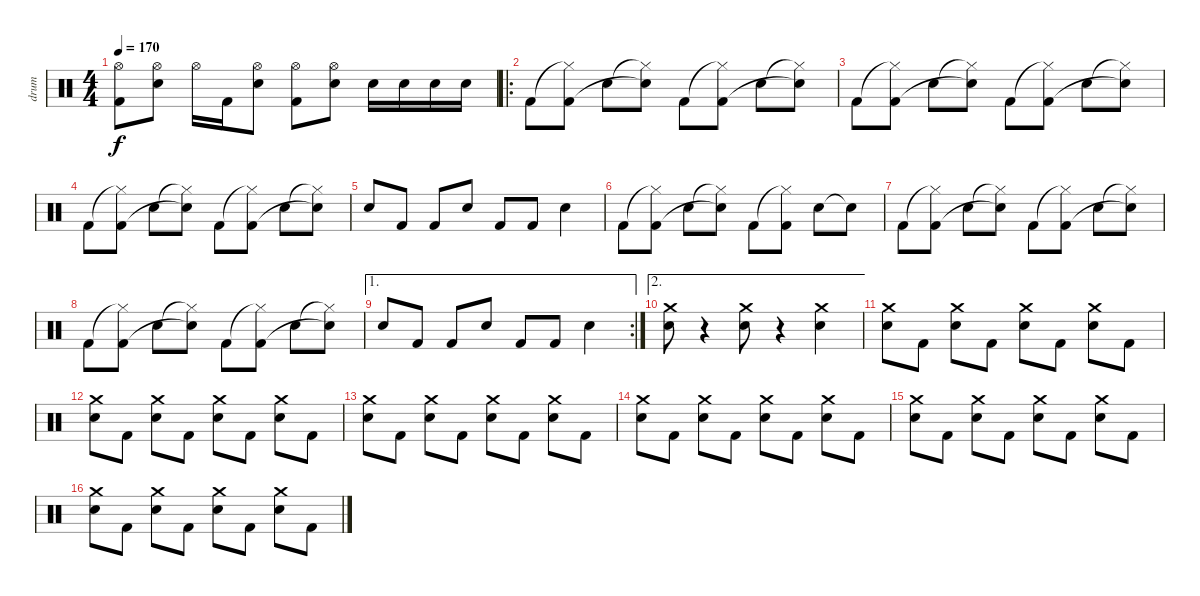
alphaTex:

\track ("drum" "drum") {instrument percussion}
\staff {score}
\articulation defaults
\ts (4 4)
\tempo 170
\clef neutral
\ks c
("Hi-Hat (open)" "Kick (hit) 2").8{dy f} ("Hi-Hat (open)" "Snare (hit) 2").8 "Hi-Hat (open)".16 "Kick (hit) 2".16 ("Hi-Hat (open)" "Snare (hit) 2").8 ("Hi-Hat (open)" "Kick (hit) 2").8 ("Hi-Hat (open)" "Snare (hit) 2").8 "Snare (hit) 2".16 "Snare (hit) 2".16 "Snare (hit) 2".16 "Snare (hit) 2".16 |
\ro "Kick (hit) 2".8
("Hi-Hat (closed)"{t} "Kick (hit) 2").8 "Snare (hit) 2".8 ("Hi-Hat (closed)"{t} "Snare (hit)"{t}).8 "Kick (hit) 2".8 ("Hi-Hat (closed)"{t} "Kick (hit) 2").8 "Snare (hit) 2".8 ("Hi-Hat (closed)"{t} "Snare (hit) 2"{t}).8 |
"Kick (hit) 2".8 ("Hi-Hat (closed)"{t} "Kick (hit) 2").8 "Snare (hit) 2".8 ("Hi-Hat (closed)"{t} "Snare (hit)"{t}).8 "Kick (hit) 2".8 ("Hi-Hat (closed)"{t} "Kick (hit) 2").8 "Snare (hit) 2".8 ("Hi-Hat (closed)"{t} "Snare (hit) 2"{t}).8 |
"Kick (hit) 2".8 ("Hi-Hat (closed)"{t} "Kick (hit) 2").8 "Snare (hit) 2".8 ("Hi-Hat (closed)"{t} "Snare (hit)"{t}).8 "Kick (hit) 2".8 ("Hi-Hat (closed)"{t} "Kick (hit) 2").8 "Snare (hit) 2".8 ("Hi-Hat (closed)"{t} "Snare (hit)"{t}).8 |
"Snare (hit) 2".8 "Kick (hit) 2".8 "Kick (hit) 2".8 "Snare (hit) 2".8 "Kick (hit) 2".8 "Kick (hit) 2".8 "Snare (hit) 2".4 |
"Kick (hit) 2".8 ("Hi-Hat (closed)"{t} "Kick (hit) 2").8 "Snare (hit) 2".8 ("Hi-Hat (closed)"{t} "Snare (hit)"{t}).8 "Kick (hit) 2".8 ("Hi-Hat (closed)"{t} "Kick (hit) 2").8 "Snare (hit) 2".8 "Snare (hit) 2"{t}.8 |
"Kick (hit) 2".8 ("Hi-Hat (closed)"{t} "Kick (hit) 2").8 "Snare (hit) 2".8 ("Hi-Hat (closed)"{t} "Snare (hit)"{t}).8 "Kick (hit) 2".8 ("Hi-Hat (closed)"{t} "Kick (hit) 2").8 "Snare (hit) 2".8 ("Hi-Hat (closed)"{t} "Snare (hit) 2"{t}).8 |
"Kick (hit) 2".8 ("Hi-Hat (closed)"{t} "Kick (hit) 2").8 "Snare (hit) 2".8 ("Hi-Hat (closed)"{t} "Snare (hit)"{t}).8 "Kick (hit) 2".8 ("Hi-Hat (closed)"{t} "Kick (hit) 2").8 "Snare (hit) 2".8 ("Hi-Hat (closed)"{t} "Snare (hit)"{t}).8 |
\ae 1
\rc 2 "Snare (hit) 2".8 "Kick (hit) 2".8 "Kick (hit) 2".8 "Snare (hit) 2".8 "Kick (hit) 2".8 "Kick (hit) 2".8 "Snare (hit) 2".4
|
\ae 2
("Crash medium (hit)" "Snare (hit) 2").8 r.4 ("Crash medium (hit)" "Snare (hit) 2").8 r.4 ("Crash medium (hit)" "Snare (hit) 2").4 |
("Crash medium (hit)" "Snare (hit) 2").8 "Kick (hit) 2".8 ("Crash medium (hit)" "Snare (hit) 2").8 "Kick (hit) 2".8 ("Crash medium (hit)" "Snare (hit) 2").8 "Kick (hit) 2".8 ("Crash medium (hit)" "Snare (hit) 2").8 "Kick (hit) 2".8 |
("Crash medium (hit)" "Snare (hit) 2").8 "Kick (hit) 2".8 ("Crash medium (hit)" "Snare (hit) 2").8 "Kick (hit) 2".8 ("Crash medium (hit)" "Snare (hit) 2").8 "Kick (hit) 2".8 ("Crash medium (hit)" "Snare (hit) 2").8 "Kick (hit) 2".8 |
("Crash medium (hit)" "Snare (hit) 2").8 "Kick (hit) 2".8 ("Crash medium (hit)" "Snare (hit) 2").8 "Kick (hit) 2".8 ("Crash medium (hit)" "Snare (hit) 2").8 "Kick (hit) 2".8 ("Crash medium (hit)" "Snare (hit) 2").8 "Kick (hit) 2".8 |
("Crash medium (hit)" "Snare (hit) 2").8 "Kick (hit) 2".8 ("Crash medium (hit)" "Snare (hit) 2").8 "Kick (hit) 2".8 ("Crash medium (hit)" "Snare (hit) 2").8 "Kick (hit) 2".8 ("Crash medium (hit)" "Snare (hit) 2").8 "Kick (hit) 2".8 |
("Crash medium (hit)" "Snare (hit) 2").8 "Kick (hit) 2".8 ("Crash medium (hit)" "Snare (hit) 2").8 "Kick (hit) 2".8 ("Crash medium (hit)" "Snare (hit) 2").8 "Kick (hit) 2".8 ("Crash medium (hit)" "Snare (hit) 2").8 "Kick (hit) 2".8 |
("Crash medium (hit)" "Snare (hit) 2").8 "Kick (hit) 2".8 ("Crash medium (hit)" "Snare (hit) 2").8 "Kick (hit) 2".8 ("Crash medium (hit)" "Snare (hit) 2").8 "Kick (hit) 2".8 ("Crash medium (hit)" "Snare (hit) 2").8 "Kick (hit) 2".8
